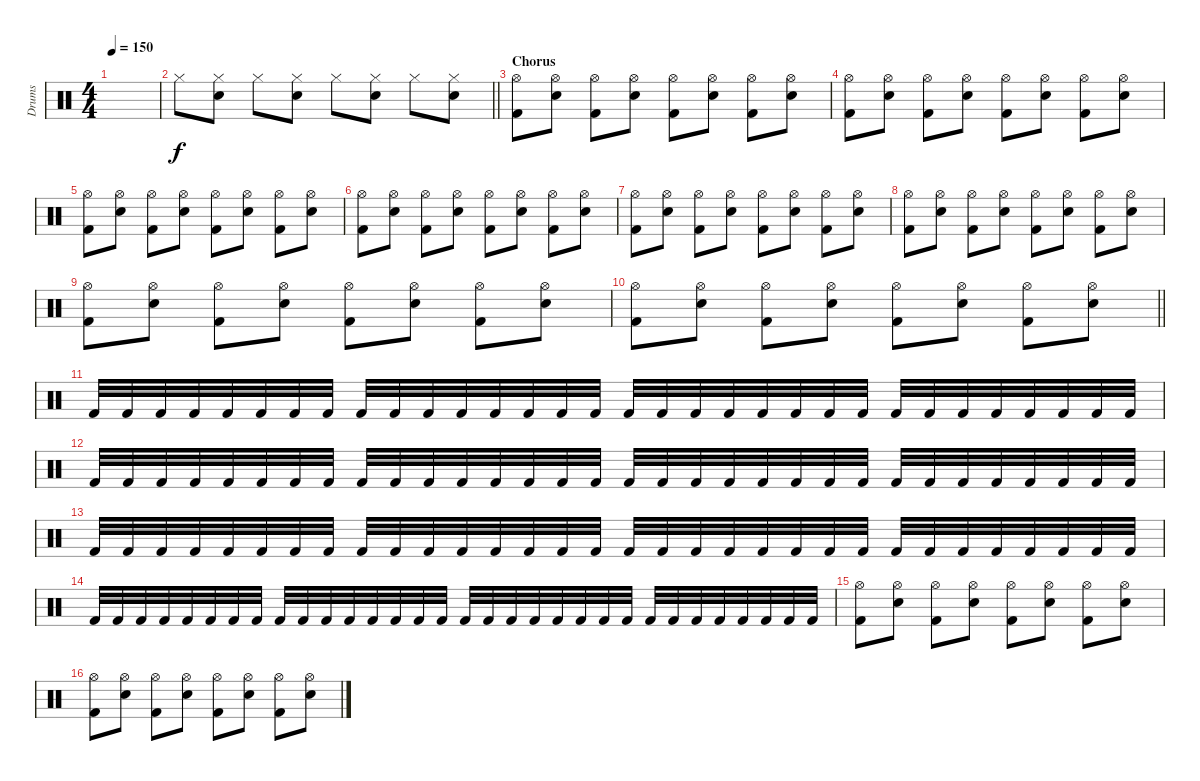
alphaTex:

\track ("Drums" "Drums") {instrument percussion}
\staff {score}
\articulation defaults
\ts (4 4)
\tempo 150
\clef neutral
\ks c
|
\barLineRight lightlight "Hi-Hat (closed)".8
("Hi-Hat (closed)" "Snare (hit) 2").8 "Hi-Hat (closed)".8 ("Hi-Hat (closed)" "Snare (hit) 2").8 "Hi-Hat (closed)".8 ("Hi-Hat (closed)" "Snare (hit) 2").8 "Hi-Hat (closed)".8 ("Hi-Hat (closed)" "Snare (hit) 2").8 |
\section ("" "Chorus")
("Hi-Hat (open)" "Kick (hit) 2").8 ("Hi-Hat (open)" "Snare (hit) 2").8 ("Hi-Hat (open)" "Kick (hit) 2").8 ("Hi-Hat (open)" "Snare (hit) 2").8 ("Hi-Hat (open)" "Kick (hit) 2").8 ("Hi-Hat (open)" "Snare (hit) 2").8 ("Hi-Hat (open)" "Kick (hit) 2").8 ("Hi-Hat (open)" "Snare (hit) 2").8 |
("Hi-Hat (open)" "Kick (hit) 2").8 ("Hi-Hat (open)" "Snare (hit) 2").8 ("Hi-Hat (open)" "Kick (hit) 2").8 ("Hi-Hat (open)" "Snare (hit) 2").8 ("Hi-Hat (open)" "Kick (hit) 2").8 ("Hi-Hat (open)" "Snare (hit) 2").8 ("Hi-Hat (open)" "Kick (hit) 2").8 ("Hi-Hat (open)" "Snare (hit) 2").8 |
("Hi-Hat (open)" "Kick (hit) 2").8 ("Hi-Hat (open)" "Snare (hit) 2").8 ("Hi-Hat (open)" "Kick (hit) 2").8 ("Hi-Hat (open)" "Snare (hit) 2").8 ("Hi-Hat (open)" "Kick (hit) 2").8 ("Hi-Hat (open)" "Snare (hit) 2").8 ("Hi-Hat (open)" "Kick (hit) 2").8 ("Hi-Hat (open)" "Snare (hit) 2").8 |
("Hi-Hat (open)" "Kick (hit) 2").8 ("Hi-Hat (open)" "Snare (hit) 2").8 ("Hi-Hat (open)" "Kick (hit) 2").8 ("Hi-Hat (open)" "Snare (hit) 2").8 ("Hi-Hat (open)" "Kick (hit) 2").8 ("Hi-Hat (open)" "Snare (hit) 2").8 ("Hi-Hat (open)" "Kick (hit) 2").8 ("Hi-Hat (open)" "Snare (hit) 2").8 |
("Hi-Hat (open)" "Kick (hit) 2").8 ("Hi-Hat (open)" "Snare (hit) 2").8 ("Hi-Hat (open)" "Kick (hit) 2").8 ("Hi-Hat (open)" "Snare (hit) 2").8 ("Hi-Hat (open)" "Kick (hit) 2").8 ("Hi-Hat (open)" "Snare (hit) 2").8 ("Hi-Hat (open)" "Kick (hit) 2").8 ("Hi-Hat (open)" "Snare (hit) 2").8 |
("Hi-Hat (open)" "Kick (hit) 2").8 ("Hi-Hat (open)" "Snare (hit) 2").8 ("Hi-Hat (open)" "Kick (hit) 2").8 ("Hi-Hat (open)" "Snare (hit) 2").8 ("Hi-Hat (open)" "Kick (hit) 2").8 ("Hi-Hat (open)" "Snare (hit) 2").8 ("Hi-Hat (open)" "Kick (hit) 2").8 ("Hi-Hat (open)" "Snare (hit) 2").8 |
("Hi-Hat (open)" "Kick (hit) 2").8 ("Hi-Hat (open)" "Snare (hit) 2").8 ("Hi-Hat (open)" "Kick (hit) 2").8 ("Hi-Hat (open)" "Snare (hit) 2").8 ("Hi-Hat (open)" "Kick (hit) 2").8 ("Hi-Hat (open)" "Snare (hit) 2").8 ("Hi-Hat (open)" "Kick (hit) 2").8 ("Hi-Hat (open)" "Snare (hit) 2").8 |
\barLineRight lightlight
("Hi-Hat (open)" "Kick (hit) 2").8 ("Hi-Hat (open)" "Snare (hit) 2").8 ("Hi-Hat (open)" "Kick (hit) 2").8 ("Hi-Hat (open)" "Snare (hit) 2").8 ("Hi-Hat (open)" "Kick (hit) 2").8 ("Hi-Hat (open)" "Snare (hit) 2").8 ("Hi-Hat (open)" "Kick (hit) 2").8 ("Hi-Hat (open)" "Snare (hit) 2").8 |
"Kick (hit) 2".32 "Kick (hit) 2".32 "Kick (hit) 2".32 "Kick (hit) 2".32 "Kick (hit) 2".32 "Kick (hit) 2".32 "Kick (hit) 2".32 "Kick (hit) 2".32 "Kick (hit) 2".32 "Kick (hit) 2".32 "Kick (hit) 2".32 "Kick (hit) 2".32 "Kick (hit) 2".32 "Kick (hit) 2".32 "Kick (hit) 2".32 "Kick (hit) 2".32 "Kick (hit) 2".32 "Kick (hit) 2".32 "Kick (hit) 2".32 "Kick (hit) 2".32 "Kick (hit) 2".32 "Kick (hit) 2".32 "Kick (hit) 2".32 "Kick (hit) 2".32 "Kick (hit) 2".32 "Kick (hit) 2".32 "Kick (hit) 2".32 "Kick (hit) 2".32 "Kick (hit) 2".32 "Kick (hit) 2".32 "Kick (hit) 2".32 "Kick (hit) 2".32 |
"Kick (hit) 2".32 "Kick (hit) 2".32 "Kick (hit) 2".32 "Kick (hit) 2".32 "Kick (hit) 2".32 "Kick (hit) 2".32 "Kick (hit) 2".32 "Kick (hit) 2".32 "Kick (hit) 2".32 "Kick (hit) 2".32 "Kick (hit) 2".32 "Kick (hit) 2".32 "Kick (hit) 2".32 "Kick (hit) 2".32 "Kick (hit) 2".32 "Kick (hit) 2".32 "Kick (hit) 2".32 "Kick (hit) 2".32 "Kick (hit) 2".32 "Kick (hit) 2".32 "Kick (hit) 2".32 "Kick (hit) 2".32 "Kick (hit) 2".32 "Kick (hit) 2".32 "Kick (hit) 2".32 "Kick (hit) 2".32 "Kick (hit) 2".32 "Kick (hit) 2".32 "Kick (hit) 2".32 "Kick (hit) 2".32 "Kick (hit) 2".32 "Kick (hit) 2".32 |
"Kick (hit) 2".32 "Kick (hit) 2".32 "Kick (hit) 2".32 "Kick (hit) 2".32 "Kick (hit) 2".32 "Kick (hit) 2".32 "Kick (hit) 2".32 "Kick (hit) 2".32 "Kick (hit) 2".32 "Kick (hit) 2".32 "Kick (hit) 2".32 "Kick (hit) 2".32 "Kick (hit) 2".32 "Kick (hit) 2".32 "Kick (hit) 2".32 "Kick (hit) 2".32 "Kick (hit) 2".32 "Kick (hit) 2".32 "Kick (hit) 2".32 "Kick (hit) 2".32 "Kick (hit) 2".32 "Kick (hit) 2".32 "Kick (hit) 2".32 "Kick (hit) 2".32 "Kick (hit) 2".32 "Kick (hit) 2".32 "Kick (hit) 2".32 "Kick (hit) 2".32 "Kick (hit) 2".32 "Kick (hit) 2".32 "Kick (hit) 2".32 "Kick (hit) 2".32 |
"Kick (hit) 2".32 "Kick (hit) 2".32 "Kick (hit) 2".32 "Kick (hit) 2".32 "Kick (hit) 2".32 "Kick (hit) 2".32 "Kick (hit) 2".32 "Kick (hit) 2".32 "Kick (hit) 2".32 "Kick (hit) 2".32 "Kick (hit) 2".32 "Kick (hit) 2".32 "Kick (hit) 2".32 "Kick (hit) 2".32 "Kick (hit) 2".32 "Kick (hit) 2".32 "Kick (hit) 2".32 "Kick (hit) 2".32 "Kick (hit) 2".32 "Kick (hit) 2".32 "Kick (hit) 2".32 "Kick (hit) 2".32 "Kick (hit) 2".32 "Kick (hit) 2".32 "Kick (hit) 2".32 "Kick (hit) 2".32 "Kick (hit) 2".32 "Kick (hit) 2".32 "Kick (hit) 2".32 "Kick (hit) 2".32 "Kick (hit) 2".32 "Kick (hit) 2".32 |
("Hi-Hat (open)" "Kick (hit) 2").8 ("Hi-Hat (open)" "Snare (hit) 2").8 ("Hi-Hat (open)" "Kick (hit) 2").8 ("Hi-Hat (open)" "Snare (hit) 2").8 ("Hi-Hat (open)" "Kick (hit) 2").8 ("Hi-Hat (open)" "Snare (hit) 2").8 ("Hi-Hat (open)" "Kick (hit) 2").8 ("Hi-Hat (open)" "Snare (hit) 2").8 |
("Hi-Hat (open)" "Kick (hit) 2").8 ("Hi-Hat (open)" "Snare (hit) 2").8 ("Hi-Hat (open)" "Kick (hit) 2").8 ("Hi-Hat (open)" "Snare (hit) 2").8 ("Hi-Hat (open)" "Kick (hit) 2").8 ("Hi-Hat (open)" "Snare (hit) 2").8 ("Hi-Hat (open)" "Kick (hit) 2").8 ("Hi-Hat (open)" "Snare (hit) 2").8
